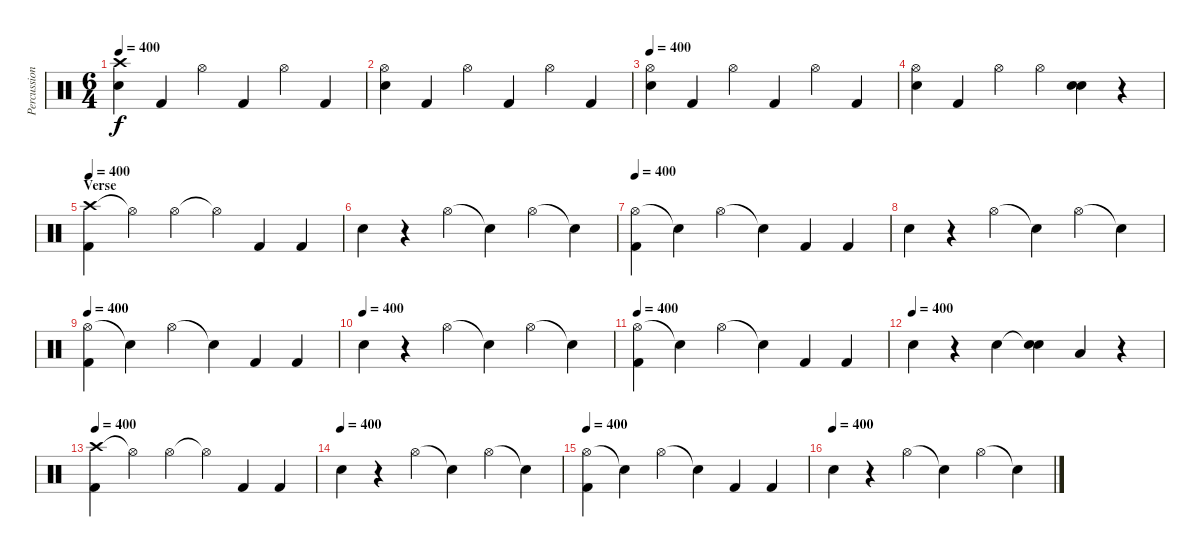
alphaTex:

\track ("Percussion" "Percussion") {instrument percussion}
\staff {score}
\articulation defaults
\ts (6 4)
\tempo 400
\clef neutral
\ks c
("Crash high (hit)" "Snare (hit) 2").4{dy f} "Kick (hit) 2".4 "Hi-Hat (open)".4 "Kick (hit) 2".4 "Hi-Hat (open)".4 "Kick (hit) 2".4 |
("Hi-Hat (open)" "Snare (hit) 2").4 "Kick (hit) 2".4 "Hi-Hat (open)".4 "Kick (hit) 2".4 "Hi-Hat (open)".4 "Kick (hit) 2".4 |
\tempo 400
("Hi-Hat (open)" "Snare (hit) 2").4 "Kick (hit) 2".4 "Hi-Hat (open)".4 "Kick (hit) 2".4 "Hi-Hat (open)".4 "Kick (hit) 2".4 |
("Hi-Hat (open)" "Snare (hit) 2").4 "Kick (hit) 2".4 "Hi-Hat (open)".4 "Hi-Hat (open)".4 ("Snare (hit) 2" "Snare (hit) 2").4 r.4 |
\section ("" "Verse")
\tempo 400
("Crash high (hit)" "Kick (hit) 2").4 "Hi-Hat (open)"{t}.4 "Hi-Hat (open)".4 "Hi-Hat (open)"{t}.4 "Kick (hit) 2".4 "Kick (hit) 2".4 |
"Snare (hit) 2".4 r.4 "Hi-Hat (open)".4 "Snare (hit)"{t}.4 "Hi-Hat (open)".4 "Snare (hit)"{t}.4 |
\tempo 400
("Hi-Hat (open)" "Kick (hit) 2").4 "Snare (hit)"{t}.4 "Hi-Hat (open)".4 "Snare (hit)"{t}.4 "Kick (hit) 2".4 "Kick (hit) 2".4 |
"Snare (hit) 2".4 r.4 "Hi-Hat (open)".4 "Snare (hit)"{t}.4 "Hi-Hat (open)".4 "Snare (hit)"{t}.4 |
\tempo 400
("Hi-Hat (open)" "Kick (hit) 2").4 "Snare (hit)"{t}.4 "Hi-Hat (open)".4 "Snare (hit)"{t}.4 "Kick (hit) 2".4 "Kick (hit) 2".4 |
\tempo (400)
"Snare (hit) 2".4 r.4 "Hi-Hat (open)".4 "Snare (hit)"{t}.4 "Hi-Hat (open)".4 "Snare (hit)"{t}.4 |
\tempo 400
("Hi-Hat (open)" "Kick (hit) 2").4 "Snare (hit)"{t}.4 "Hi-Hat (open)".4 "Snare (hit)"{t}.4 "Kick (hit) 2".4 "Kick (hit) 2".4 |
\tempo (400)
"Snare (hit) 2".4 r.4 "Snare (hit) 2".4 ("Snare (hit)"{t} "Snare (hit) 2").4 "Low Tom (hit)".4 r.4 |
\tempo 400
("Crash high (hit)" "Kick (hit) 2").4 "Hi-Hat (open)"{t}.4 "Hi-Hat (open)".4 "Hi-Hat (open)"{t}.4 "Kick (hit) 2".4 "Kick (hit) 2".4 |
\tempo (400)
"Snare (hit) 2".4 r.4 "Hi-Hat (open)".4 "Snare (hit)"{t}.4 "Hi-Hat (open)".4 "Snare (hit)"{t}.4 |
\tempo 400
("Hi-Hat (open)" "Kick (hit) 2").4 "Snare (hit)"{t}.4 "Hi-Hat (open)".4 "Snare (hit)"{t}.4 "Kick (hit) 2".4 "Kick (hit) 2".4 |
\tempo (400)
"Snare (hit) 2".4 r.4 "Hi-Hat (open)".4 "Snare (hit)"{t}.4 "Hi-Hat (open)".4 "Snare (hit)"{t}.4
